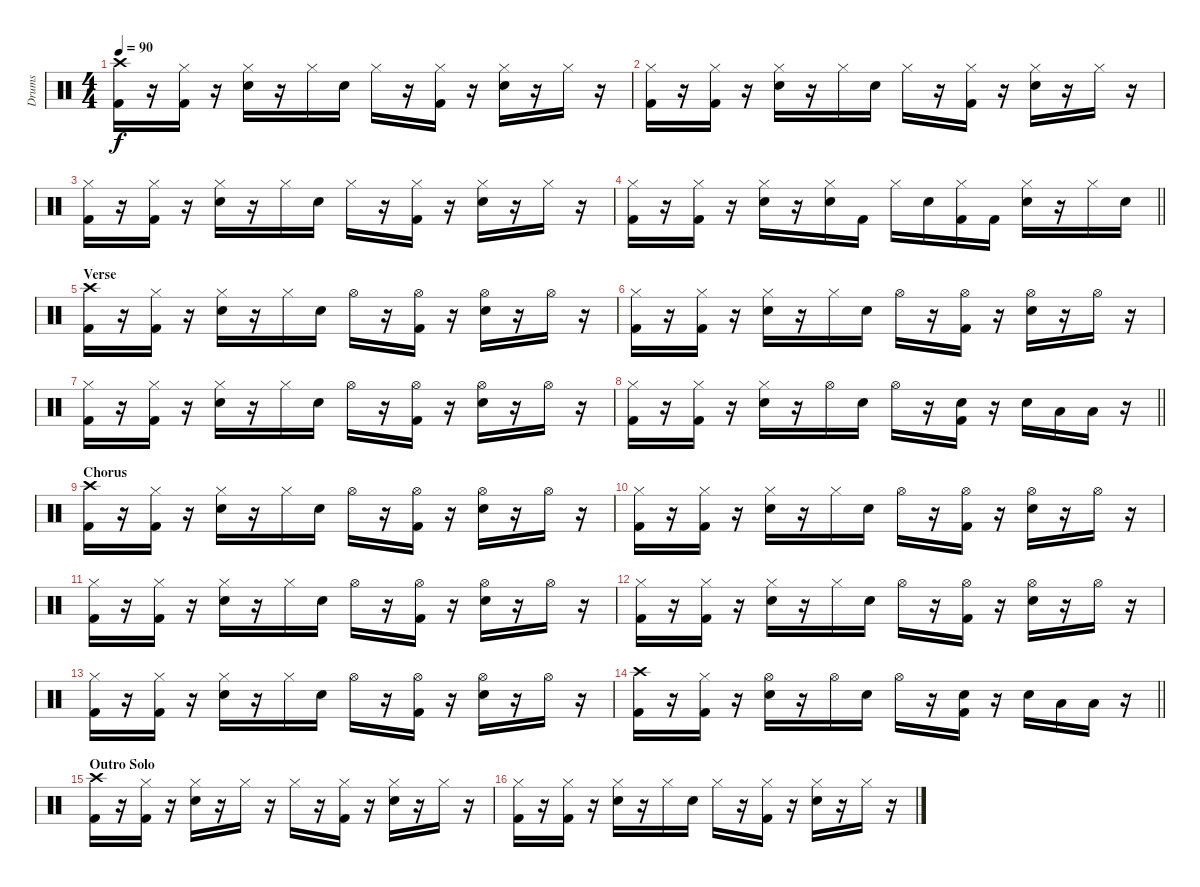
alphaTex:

\track ("Drums" "Drums") {instrument percussion}
\staff {score}
\articulation defaults
\ts (4 4)
\tempo 90
\clef neutral
\ks c
("Crash high (hit)" "Kick (hit) 2").16{dy f} r.16 ("Hi-Hat (closed)" "Kick (hit) 2").16 r.16 ("Hi-Hat (closed)" "Snare (hit) 2").16 r.16 "Hi-Hat (closed)".16 "Snare (hit) 2".16 "Hi-Hat (closed)".16 r.16 ("Hi-Hat (closed)" "Kick (hit) 2").16 r.16 ("Hi-Hat (closed)" "Snare (hit) 2").16 r.16 "Hi-Hat (closed)".16 r.16 |
("Hi-Hat (closed)" "Kick (hit) 2").16 r.16 ("Hi-Hat (closed)" "Kick (hit) 2").16 r.16 ("Hi-Hat (closed)" "Snare (hit) 2").16 r.16 "Hi-Hat (closed)".16 "Snare (hit) 2".16 "Hi-Hat (closed)".16 r.16 ("Hi-Hat (closed)" "Kick (hit) 2").16 r.16 ("Hi-Hat (closed)" "Snare (hit) 2").16 r.16 "Hi-Hat (closed)".16 r.16 |
("Hi-Hat (closed)" "Kick (hit) 2").16 r.16 ("Hi-Hat (closed)" "Kick (hit) 2").16 r.16 ("Hi-Hat (closed)" "Snare (hit) 2").16 r.16 "Hi-Hat (closed)".16 "Snare (hit) 2".16 "Hi-Hat (closed)".16 r.16 ("Hi-Hat (closed)" "Kick (hit) 2").16 r.16 ("Hi-Hat (closed)" "Snare (hit) 2").16 r.16 "Hi-Hat (closed)".16 r.16 |
\barLineRight lightlight
("Hi-Hat (closed)" "Kick (hit) 2").16 r.16 ("Hi-Hat (closed)" "Kick (hit) 2").16 r.16 ("Hi-Hat (closed)" "Snare (hit) 2").16 r.16 ("Hi-Hat (closed)" "Snare (hit) 2").16 "Kick (hit) 2".16 "Hi-Hat (closed)".16 "Snare (hit) 2".16 ("Hi-Hat (closed)" "Kick (hit) 2").16 "Kick (hit) 2".16 ("Hi-Hat (closed)" "Snare (hit) 2").16 r.16 "Hi-Hat (closed)".16 "Snare (hit) 2".16 |
\section ("" "Verse")
("Crash high (hit)" "Kick (hit) 2").16 r.16 ("Hi-Hat (closed)" "Kick (hit) 2").16 r.16 ("Hi-Hat (closed)" "Snare (hit) 2").16 r.16 "Hi-Hat (closed)".16 "Snare (hit) 2".16 "Hi-Hat (open)".16 r.16 ("Hi-Hat (open)" "Kick (hit) 2").16 r.16 ("Hi-Hat (open)" "Snare (hit) 2").16 r.16 "Hi-Hat (open)".16 r.16 |
("Hi-Hat (closed)" "Kick (hit) 2").16 r.16 ("Hi-Hat (closed)" "Kick (hit) 2").16 r.16 ("Hi-Hat (closed)" "Snare (hit) 2").16 r.16 "Hi-Hat (closed)".16 "Snare (hit) 2".16 "Hi-Hat (open)".16 r.16 ("Hi-Hat (open)" "Kick (hit) 2").16 r.16 ("Hi-Hat (open)" "Snare (hit) 2").16 r.16 "Hi-Hat (open)".16 r.16 |
("Hi-Hat (closed)" "Kick (hit) 2").16 r.16 ("Hi-Hat (closed)" "Kick (hit) 2").16 r.16 ("Hi-Hat (closed)" "Snare (hit) 2").16 r.16 "Hi-Hat (closed)".16 "Snare (hit) 2".16 "Hi-Hat (open)".16 r.16 ("Hi-Hat (open)" "Kick (hit) 2").16 r.16 ("Hi-Hat (open)" "Snare (hit) 2").16 r.16 "Hi-Hat (open)".16 r.16 |
\barLineRight lightlight
("Hi-Hat (closed)" "Kick (hit) 2").16 r.16 ("Hi-Hat (closed)" "Kick (hit) 2").16 r.16 ("Hi-Hat (closed)" "Snare (hit) 2").16 r.16 "Hi-Hat (open)".16 "Snare (hit) 2".16 "Hi-Hat (open)".16 r.16 ("Snare (hit) 2" "Kick (hit) 2").16 r.16 "Snare (hit) 2".16 "Low Tom (hit)".16 "Low Tom (hit)".16 r.16 |
\section ("" "Chorus")
("Crash high (hit)" "Kick (hit) 2").16 r.16 ("Hi-Hat (closed)" "Kick (hit) 2").16 r.16 ("Hi-Hat (closed)" "Snare (hit) 2").16 r.16 "Hi-Hat (closed)".16 "Snare (hit) 2".16 "Hi-Hat (open)".16 r.16 ("Hi-Hat (open)" "Kick (hit) 2").16 r.16 ("Hi-Hat (open)" "Snare (hit) 2").16 r.16 "Hi-Hat (open)".16 r.16 |
("Hi-Hat (closed)" "Kick (hit) 2").16 r.16 ("Hi-Hat (closed)" "Kick (hit) 2").16 r.16 ("Hi-Hat (closed)" "Snare (hit) 2").16 r.16 "Hi-Hat (closed)".16 "Snare (hit) 2".16 "Hi-Hat (open)".16 r.16 ("Hi-Hat (open)" "Kick (hit) 2").16 r.16 ("Hi-Hat (open)" "Snare (hit) 2").16 r.16 "Hi-Hat (open)".16 r.16 |
("Hi-Hat (closed)" "Kick (hit) 2").16 r.16 ("Hi-Hat (closed)" "Kick (hit) 2").16 r.16 ("Hi-Hat (closed)" "Snare (hit) 2").16 r.16 "Hi-Hat (closed)".16 "Snare (hit) 2".16 "Hi-Hat (open)".16 r.16 ("Hi-Hat (open)" "Kick (hit) 2").16 r.16 ("Hi-Hat (open)" "Snare (hit) 2").16 r.16 "Hi-Hat (open)".16 r.16 |
("Hi-Hat (closed)" "Kick (hit) 2").16 r.16 ("Hi-Hat (closed)" "Kick (hit) 2").16 r.16 ("Hi-Hat (closed)" "Snare (hit) 2").16 r.16 "Hi-Hat (closed)".16 "Snare (hit) 2".16 "Hi-Hat (open)".16 r.16 ("Hi-Hat (open)" "Kick (hit) 2").16 r.16 ("Hi-Hat (open)" "Snare (hit) 2").16 r.16 "Hi-Hat (open)".16 r.16 |
("Hi-Hat (closed)" "Kick (hit) 2").16 r.16 ("Hi-Hat (closed)" "Kick (hit) 2").16 r.16 ("Hi-Hat (closed)" "Snare (hit) 2").16 r.16 "Hi-Hat (closed)".16 "Snare (hit) 2".16 "Hi-Hat (open)".16 r.16 ("Hi-Hat (open)" "Kick (hit) 2").16 r.16 ("Hi-Hat (open)" "Snare (hit) 2").16 r.16 "Hi-Hat (open)".16 r.16 |
\barLineRight lightlight
("Crash high (hit)" "Kick (hit) 2").16 r.16 ("Hi-Hat (closed)" "Kick (hit) 2").16 r.16 ("Hi-Hat (open)" "Snare (hit) 2").16 r.16 "Hi-Hat (open)".16 "Snare (hit) 2".16 "Hi-Hat (open)".16 r.16 ("Snare (hit) 2" "Kick (hit) 2").16 r.16 "Snare (hit) 2".16 "Low Tom (hit)".16 "Low Tom (hit)".16 r.16 |
\section ("" "Outro Solo")
("Crash high (hit)" "Kick (hit) 2").16 r.16 ("Hi-Hat (closed)" "Kick (hit) 2").16 r.16 ("Hi-Hat (closed)" "Snare (hit) 2").16 r.16 "Hi-Hat (closed)".16 r.16 "Hi-Hat (closed)".16 r.16 ("Hi-Hat (closed)" "Kick (hit) 2").16 r.16 ("Hi-Hat (closed)" "Snare (hit) 2").16 r.16 "Hi-Hat (closed)".16 r.16 |
("Hi-Hat (closed)" "Kick (hit) 2").16 r.16 ("Hi-Hat (closed)" "Kick (hit) 2").16 r.16 ("Hi-Hat (closed)" "Snare (hit) 2").16 r.16 "Hi-Hat (closed)".16 "Snare (hit) 2".16 "Hi-Hat (closed)".16 r.16 ("Hi-Hat (closed)" "Kick (hit) 2").16 r.16 ("Hi-Hat (closed)" "Snare (hit) 2").16 r.16 "Hi-Hat (closed)".16 r.16
